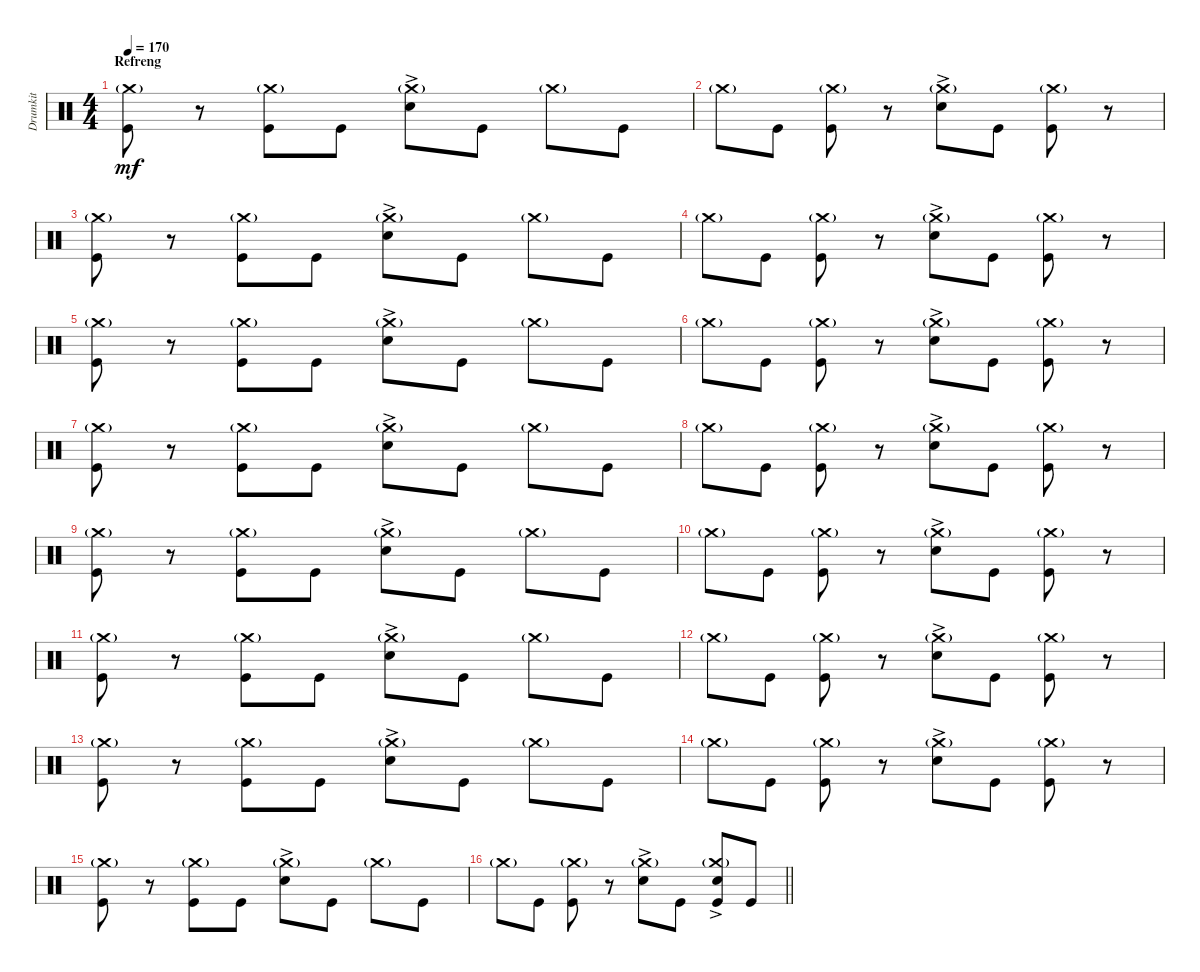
\track ("Drumkit" "Drumkit") {instrument percussion}
\staff {score}
\articulation defaults
\ts (4 4)
\section ("" "Refreng")
\tempo 170
\clef neutral
\ks c
("Kick (hit)" "Crash medium (hit)"{g}).8{dy mf} r.8 ("Kick (hit)" "Crash medium (hit)"{g}).8 "Kick (hit)".8 ("Snare (hit) 2"{ac} "Crash medium (hit)"{g}).8 "Kick (hit)".8 "Crash medium (hit)"{g}.8 "Kick (hit)".8 |
"Crash medium (hit)"{g}.8 "Kick (hit)".8 ("Kick (hit)" "Crash medium (hit)"{g}).8 r.8 ("Snare (hit) 2"{ac} "Crash medium (hit)"{g}).8 "Kick (hit)".8 ("Kick (hit)" "Crash medium (hit)"{g}).8 r.8 |
("Kick (hit)" "Crash medium (hit)"{g}).8 r.8 ("Kick (hit)" "Crash medium (hit)"{g}).8 "Kick (hit)".8 ("Snare (hit) 2"{ac} "Crash medium (hit)"{g}).8 "Kick (hit)".8 "Crash medium (hit)"{g}.8 "Kick (hit)".8 |
"Crash medium (hit)"{g}.8 "Kick (hit)".8 ("Kick (hit)" "Crash medium (hit)"{g}).8 r.8 ("Snare (hit) 2"{ac} "Crash medium (hit)"{g}).8 "Kick (hit)".8 ("Kick (hit)" "Crash medium (hit)"{g}).8 r.8 |
("Kick (hit)" "Crash medium (hit)"{g}).8 r.8 ("Kick (hit)" "Crash medium (hit)"{g}).8 "Kick (hit)".8 ("Snare (hit) 2"{ac} "Crash medium (hit)"{g}).8 "Kick (hit)".8 "Crash medium (hit)"{g}.8 "Kick (hit)".8 |
"Crash medium (hit)"{g}.8 "Kick (hit)".8 ("Kick (hit)" "Crash medium (hit)"{g}).8 r.8 ("Snare (hit) 2"{ac} "Crash medium (hit)"{g}).8 "Kick (hit)".8 ("Kick (hit)" "Crash medium (hit)"{g}).8 r.8 |
("Kick (hit)" "Crash medium (hit)"{g}).8 r.8 ("Kick (hit)" "Crash medium (hit)"{g}).8 "Kick (hit)".8 ("Snare (hit) 2"{ac} "Crash medium (hit)"{g}).8 "Kick (hit)".8 "Crash medium (hit)"{g}.8 "Kick (hit)".8 |
"Crash medium (hit)"{g}.8 "Kick (hit)".8 ("Kick (hit)" "Crash medium (hit)"{g}).8 r.8 ("Snare (hit) 2"{ac} "Crash medium (hit)"{g}).8 "Kick (hit)".8 ("Kick (hit)" "Crash medium (hit)"{g}).8 r.8 |
("Kick (hit)" "Crash medium (hit)"{g}).8 r.8 ("Kick (hit)" "Crash medium (hit)"{g}).8 "Kick (hit)".8 ("Snare (hit) 2"{ac} "Crash medium (hit)"{g}).8 "Kick (hit)".8 "Crash medium (hit)"{g}.8 "Kick (hit)".8 |
"Crash medium (hit)"{g}.8 "Kick (hit)".8 ("Kick (hit)" "Crash medium (hit)"{g}).8 r.8 ("Snare (hit) 2"{ac} "Crash medium (hit)"{g}).8 "Kick (hit)".8 ("Kick (hit)" "Crash medium (hit)"{g}).8 r.8 |
("Kick (hit)" "Crash medium (hit)"{g}).8 r.8 ("Kick (hit)" "Crash medium (hit)"{g}).8 "Kick (hit)".8 ("Snare (hit) 2"{ac} "Crash medium (hit)"{g}).8 "Kick (hit)".8 "Crash medium (hit)"{g}.8 "Kick (hit)".8 |
"Crash medium (hit)"{g}.8 "Kick (hit)".8 ("Kick (hit)" "Crash medium (hit)"{g}).8 r.8 ("Snare (hit) 2"{ac} "Crash medium (hit)"{g}).8 "Kick (hit)".8 ("Kick (hit)" "Crash medium (hit)"{g}).8 r.8 |
("Kick (hit)" "Crash medium (hit)"{g}).8 r.8 ("Kick (hit)" "Crash medium (hit)"{g}).8 "Kick (hit)".8 ("Snare (hit) 2"{ac} "Crash medium (hit)"{g}).8 "Kick (hit)".8 "Crash medium (hit)"{g}.8 "Kick (hit)".8 |
"Crash medium (hit)"{g}.8 "Kick (hit)".8 ("Kick (hit)" "Crash medium (hit)"{g}).8 r.8 ("Snare (hit) 2"{ac} "Crash medium (hit)"{g}).8 "Kick (hit)".8 ("Kick (hit)" "Crash medium (hit)"{g}).8 r.8 |
("Kick (hit)" "Crash medium (hit)"{g}).8 r.8 ("Kick (hit)" "Crash medium (hit)"{g}).8 "Kick (hit)".8 ("Snare (hit) 2"{ac} "Crash medium (hit)"{g}).8 "Kick (hit)".8 "Crash medium (hit)"{g}.8 "Kick (hit)".8 |
\barLineRight lightlight "Crash medium (hit)"{g}.8 "Kick (hit)".8
("Kick (hit)" "Crash medium (hit)"{g}).8 r.8 ("Snare (hit) 2"{ac} "Crash medium (hit)"{g}).8 "Kick (hit)".8 ("Kick (hit)" "Crash medium (hit)"{g} "Snare (hit) 2"{ac}).8 "Kick (hit)".8
